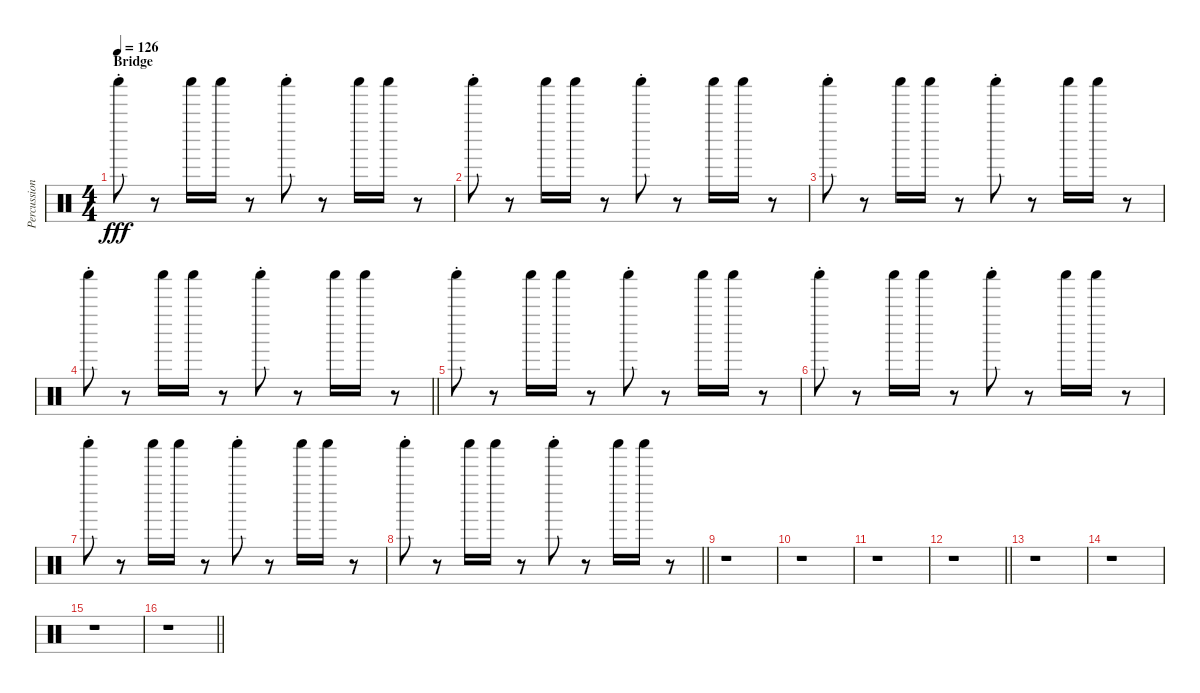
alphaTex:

\track ("Percussion" "Percussion") {instrument percussion}
\staff {score}
\articulation defaults
\ts (4 4)
\section ("" "Bridge")
\tempo 126
\clef neutral
\ks c "Shaker (hit)"{st}.8{dy fff}
r.8 "Shaker (hit)".16 "Shaker (hit)".16 r.8 "Shaker (hit)"{st}.8 r.8 "Shaker (hit)".16 "Shaker (hit)".16 r.8 |
"Shaker (hit)"{st}.8 r.8 "Shaker (hit)".16 "Shaker (hit)".16 r.8 "Shaker (hit)"{st}.8 r.8 "Shaker (hit)".16 "Shaker (hit)".16 r.8 |
"Shaker (hit)"{st}.8 r.8 "Shaker (hit)".16 "Shaker (hit)".16 r.8 "Shaker (hit)"{st}.8 r.8 "Shaker (hit)".16 "Shaker (hit)".16 r.8 |
\barLineRight lightlight "Shaker (hit)"{st}.8
r.8 "Shaker (hit)".16 "Shaker (hit)".16 r.8 "Shaker (hit)"{st}.8 r.8 "Shaker (hit)".16 "Shaker (hit)".16 r.8 |
"Shaker (hit)"{st}.8 r.8 "Shaker (hit)".16 "Shaker (hit)".16 r.8 "Shaker (hit)"{st}.8 r.8 "Shaker (hit)".16 "Shaker (hit)".16 r.8 |
"Shaker (hit)"{st}.8 r.8 "Shaker (hit)".16 "Shaker (hit)".16 r.8 "Shaker (hit)"{st}.8 r.8 "Shaker (hit)".16 "Shaker (hit)".16 r.8 |
"Shaker (hit)"{st}.8 r.8 "Shaker (hit)".16 "Shaker (hit)".16 r.8 "Shaker (hit)"{st}.8 r.8 "Shaker (hit)".16 "Shaker (hit)".16 r.8 |
\barLineRight lightlight "Shaker (hit)"{st}.8
r.8 "Shaker (hit)".16 "Shaker (hit)".16 r.8 "Shaker (hit)"{st}.8 r.8 "Shaker (hit)".16 "Shaker (hit)".16 r.8 |
r.1 |
r.1 |
r.1 |
\barLineRight lightlight
r.1 |
r.1 |
r.1 |
r.1 |
\barLineRight lightlight
r.1
